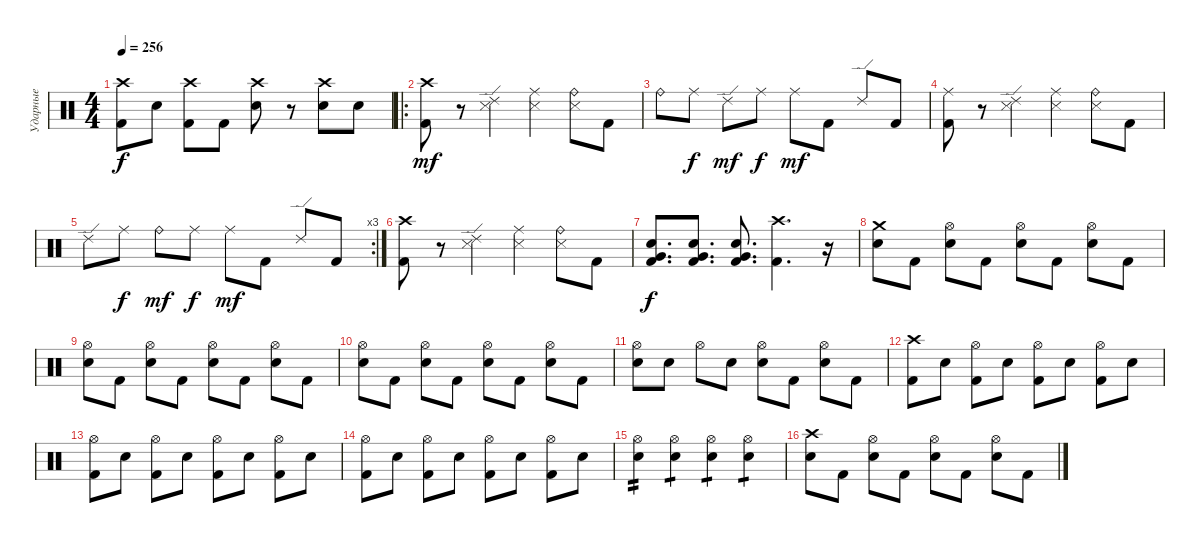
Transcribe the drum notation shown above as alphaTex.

\track ("Ударные" "Ударные") {instrument percussion}
\staff {score}
\articulation defaults
\ts (4 4)
\tempo 256
\clef neutral
\ks c
("Crash high (hit)" "Kick (hit) 2").8{dy f} "Electric Snare (hit)".8 ("Crash high (hit)" "Kick (hit) 2").8 "Kick (hit) 2".8 ("Crash high (hit)" "Electric Snare (hit)").8 r.8 ("Crash high (hit)" "Electric Snare (hit)").8 "Electric Snare (hit)".8 |
\ro
("Crash high (hit)" "Kick (hit) 2").8{dy mf} r.8 ("Ride (edge) 2" "Metronome (hit)").4 ("Ride (middle)" "Metronome (hit)").4 ("Ride (bell)" "Metronome (hit)").8 "Kick (hit) 2".8 |
"Ride (bell)".8 "Ride (middle)".8{dy f} "Ride (edge) 2".8{dy mf} "Ride (middle)".8{dy f} "Ride (middle)".8{dy mf} "Kick (hit) 2".8 "Ride (edge) 2".8 "Kick (hit) 2".8 |
("Ride (middle)" "Kick (hit) 2").8 r.8 ("Ride (edge) 2" "Metronome (hit)").4 ("Ride (middle)" "Metronome (hit)").4 ("Ride (bell)" "Metronome (hit)").8 "Kick (hit) 2".8 |
\rc 3 "Ride (edge) 2".8 "Ride (middle)".8{dy f} "Ride (bell)".8{dy mf} "Ride (middle)".8{dy f} "Ride (middle)".8{dy mf} "Kick (hit) 2".8 "Ride (edge) 2".8 "Kick (hit) 2".8
|
("Crash high (hit)" "Kick (hit) 2").8 r.8 ("Ride (edge) 2" "Metronome (hit)").4 ("Ride (middle)" "Metronome (hit)").4 ("Ride (bell)" "Metronome (hit)").8 "Kick (hit) 2".8 |
("Very Low Tom (hit)" "Snare (hit) 2" "Kick (hit) 2").8{d dy f} ("Very Low Tom (hit)" "Snare (hit) 2" "Kick (hit) 2").8{d} ("Very Low Tom (hit)" "Snare (hit) 2" "Kick (hit) 2").8{d} ("Crash high (hit)" "Kick (hit) 2").4{d} r.16 |
("Crash medium (hit)" "Electric Snare (hit)").8 "Kick (hit) 2".8 ("Hi-Hat (open)" "Electric Snare (hit)").8 "Kick (hit) 2".8 ("Hi-Hat (open)" "Electric Snare (hit)").8 "Kick (hit) 2".8 ("Hi-Hat (open)" "Electric Snare (hit)").8 "Kick (hit) 2".8 |
("Hi-Hat (open)" "Electric Snare (hit)").8 "Kick (hit) 2".8 ("Hi-Hat (open)" "Electric Snare (hit)").8 "Kick (hit) 2".8 ("Hi-Hat (open)" "Electric Snare (hit)").8 "Kick (hit) 2".8 ("Hi-Hat (open)" "Electric Snare (hit)").8 "Kick (hit) 2".8 |
("Hi-Hat (open)" "Electric Snare (hit)").8 "Kick (hit) 2".8 ("Hi-Hat (open)" "Electric Snare (hit)").8 "Kick (hit) 2".8 ("Hi-Hat (open)" "Electric Snare (hit)").8 "Kick (hit) 2".8 ("Hi-Hat (open)" "Electric Snare (hit)").8 "Kick (hit) 2".8 |
("Hi-Hat (open)" "Electric Snare (hit)").8 "Electric Snare (hit)".8 "Hi-Hat (open)".8 "Electric Snare (hit)".8 ("Hi-Hat (open)" "Electric Snare (hit)").8 "Kick (hit) 2".8 ("Hi-Hat (open)" "Electric Snare (hit)").8 "Kick (hit) 2".8 |
("Crash high (hit)" "Kick (hit) 2").8 "Electric Snare (hit)".8 ("Hi-Hat (open)" "Kick (hit) 2").8 "Electric Snare (hit)".8 ("Hi-Hat (open)" "Kick (hit) 2").8 "Electric Snare (hit)".8 ("Hi-Hat (open)" "Kick (hit) 2").8 "Electric Snare (hit)".8 |
("Hi-Hat (open)" "Kick (hit) 2").8 "Electric Snare (hit)".8 ("Hi-Hat (open)" "Kick (hit) 2").8 "Electric Snare (hit)".8 ("Hi-Hat (open)" "Kick (hit) 2").8 "Electric Snare (hit)".8 ("Hi-Hat (open)" "Kick (hit) 2").8 "Electric Snare (hit)".8 |
("Hi-Hat (open)" "Kick (hit) 2").8 "Electric Snare (hit)".8 ("Hi-Hat (open)" "Kick (hit) 2").8 "Electric Snare (hit)".8 ("Hi-Hat (open)" "Kick (hit) 2").8 "Electric Snare (hit)".8 ("Hi-Hat (open)" "Kick (hit) 2").8 "Electric Snare (hit)".8 |
("Hi-Hat (open)" "Electric Snare (hit)").4{tp 2} ("Hi-Hat (open)" "Electric Snare (hit)").4{tp 1} ("Hi-Hat (open)" "Electric Snare (hit)").4{tp 1} ("Hi-Hat (open)" "Electric Snare (hit)").4{tp 1} |
("Crash high (hit)" "Electric Snare (hit)").8 "Kick (hit) 2".8 ("Hi-Hat (open)" "Electric Snare (hit)").8 "Kick (hit) 2".8 ("Hi-Hat (open)" "Electric Snare (hit)").8 "Kick (hit) 2".8 ("Hi-Hat (open)" "Electric Snare (hit)").8 "Kick (hit) 2".8
